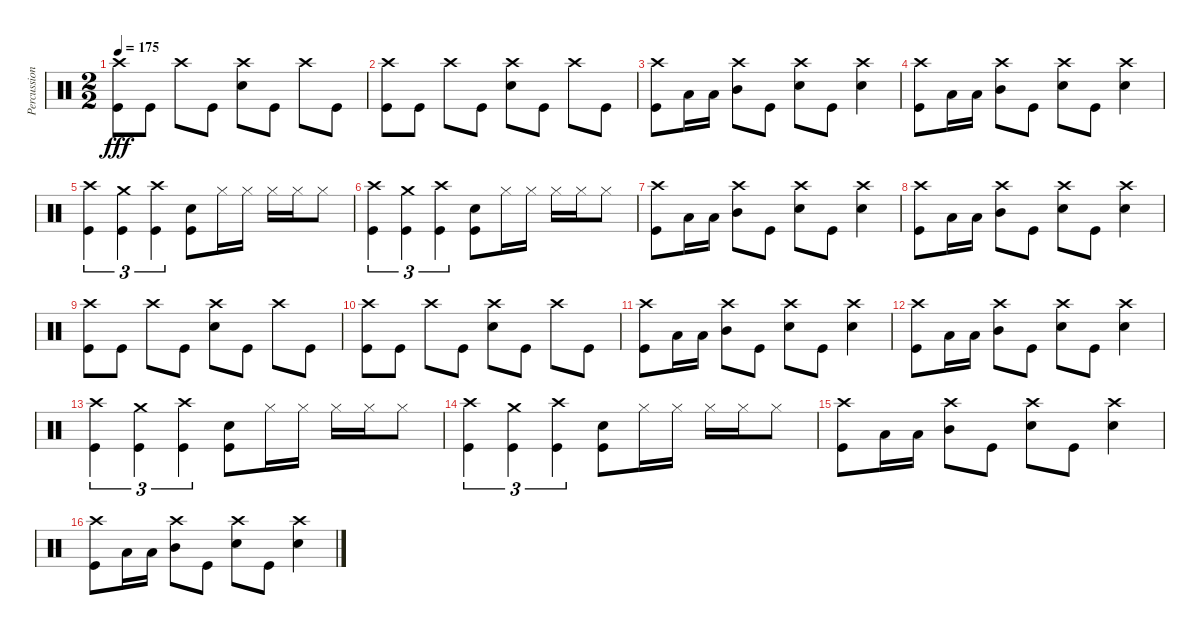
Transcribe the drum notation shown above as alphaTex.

\track ("Percussion" "Percussion") {instrument percussion}
\staff {score}
\articulation defaults
\ts (2 2)
\tempo 175
\clef neutral
\ks c
("Crash high (hit)" "Kick (hit)").8{dy fff} "Kick (hit)".8 "Crash high (hit)".8 "Kick (hit)".8 ("Crash high (hit)" "Snare (hit) 2").8 "Kick (hit)".8 "Crash high (hit)".8 "Kick (hit)".8 |
("Crash high (hit)" "Kick (hit)").8 "Kick (hit)".8 "Crash high (hit)".8 "Kick (hit)".8 ("Crash high (hit)" "Snare (hit) 2").8 "Kick (hit)".8 "Crash high (hit)".8 "Kick (hit)".8 |
("Kick (hit)" "Crash high (hit)").8 "Low Tom (hit)".16 "Low Tom (hit)".16 ("Mid Tom (hit)" "Crash high (hit)").8 "Kick (hit)".8 ("Snare (hit) 2" "Crash high (hit)").8 "Kick (hit)".8 ("Snare (hit) 2" "Crash high (hit)").4 |
("Kick (hit)" "Crash high (hit)").8 "Low Tom (hit)".16 "Low Tom (hit)".16 ("Mid Tom (hit)" "Crash high (hit)").8 "Kick (hit)".8 ("Snare (hit) 2" "Crash high (hit)").8 "Kick (hit)".8 ("Snare (hit) 2" "Crash high (hit)").4 |
("Kick (hit)" "Crash high (hit)").4{tu (3 2)} ("Kick (hit)" "Crash medium (hit)").4{tu (3 2)} ("Kick (hit)" "Crash high (hit)").4{tu (3 2)} ("Snare (hit) 2" "Kick (hit)").8 "Hi-Hat (closed)".16 "Hi-Hat (closed)".16 "Hi-Hat (closed)".16 "Hi-Hat (closed)".16 "Hi-Hat (closed)".8 |
("Kick (hit)" "Crash high (hit)").4{tu (3 2)} ("Kick (hit)" "Crash medium (hit)").4{tu (3 2)} ("Kick (hit)" "Crash high (hit)").4{tu (3 2)} ("Snare (hit) 2" "Kick (hit)").8 "Hi-Hat (closed)".16 "Hi-Hat (closed)".16 "Hi-Hat (closed)".16 "Hi-Hat (closed)".16 "Hi-Hat (closed)".8 |
("Kick (hit)" "Crash high (hit)").8 "Low Tom (hit)".16 "Low Tom (hit)".16 ("Mid Tom (hit)" "Crash high (hit)").8 "Kick (hit)".8 ("Snare (hit) 2" "Crash high (hit)").8 "Kick (hit)".8 ("Snare (hit) 2" "Crash high (hit)").4 |
("Kick (hit)" "Crash high (hit)").8 "Low Tom (hit)".16 "Low Tom (hit)".16 ("Mid Tom (hit)" "Crash high (hit)").8 "Kick (hit)".8 ("Snare (hit) 2" "Crash high (hit)").8 "Kick (hit)".8 ("Snare (hit) 2" "Crash high (hit)").4 |
("Crash high (hit)" "Kick (hit)").8 "Kick (hit)".8 "Crash high (hit)".8 "Kick (hit)".8 ("Crash high (hit)" "Snare (hit) 2").8 "Kick (hit)".8 "Crash high (hit)".8 "Kick (hit)".8 |
("Crash high (hit)" "Kick (hit)").8 "Kick (hit)".8 "Crash high (hit)".8 "Kick (hit)".8 ("Crash high (hit)" "Snare (hit) 2").8 "Kick (hit)".8 "Crash high (hit)".8 "Kick (hit)".8 |
("Kick (hit)" "Crash high (hit)").8 "Low Tom (hit)".16 "Low Tom (hit)".16 ("Mid Tom (hit)" "Crash high (hit)").8 "Kick (hit)".8 ("Snare (hit) 2" "Crash high (hit)").8 "Kick (hit)".8 ("Snare (hit) 2" "Crash high (hit)").4 |
("Kick (hit)" "Crash high (hit)").8 "Low Tom (hit)".16 "Low Tom (hit)".16 ("Mid Tom (hit)" "Crash high (hit)").8 "Kick (hit)".8 ("Snare (hit) 2" "Crash high (hit)").8 "Kick (hit)".8 ("Snare (hit) 2" "Crash high (hit)").4 |
("Kick (hit)" "Crash high (hit)").4{tu (3 2)} ("Kick (hit)" "Crash medium (hit)").4{tu (3 2)} ("Kick (hit)" "Crash high (hit)").4{tu (3 2)} ("Snare (hit) 2" "Kick (hit)").8 "Hi-Hat (closed)".16 "Hi-Hat (closed)".16 "Hi-Hat (closed)".16 "Hi-Hat (closed)".16 "Hi-Hat (closed)".8 |
("Kick (hit)" "Crash high (hit)").4{tu (3 2)} ("Kick (hit)" "Crash medium (hit)").4{tu (3 2)} ("Kick (hit)" "Crash high (hit)").4{tu (3 2)} ("Snare (hit) 2" "Kick (hit)").8 "Hi-Hat (closed)".16 "Hi-Hat (closed)".16 "Hi-Hat (closed)".16 "Hi-Hat (closed)".16 "Hi-Hat (closed)".8 |
("Kick (hit)" "Crash high (hit)").8 "Low Tom (hit)".16 "Low Tom (hit)".16 ("Mid Tom (hit)" "Crash high (hit)").8 "Kick (hit)".8 ("Snare (hit) 2" "Crash high (hit)").8 "Kick (hit)".8 ("Snare (hit) 2" "Crash high (hit)").4 |
("Kick (hit)" "Crash high (hit)").8 "Low Tom (hit)".16 "Low Tom (hit)".16 ("Mid Tom (hit)" "Crash high (hit)").8 "Kick (hit)".8 ("Snare (hit) 2" "Crash high (hit)").8 "Kick (hit)".8 ("Snare (hit) 2" "Crash high (hit)").4
